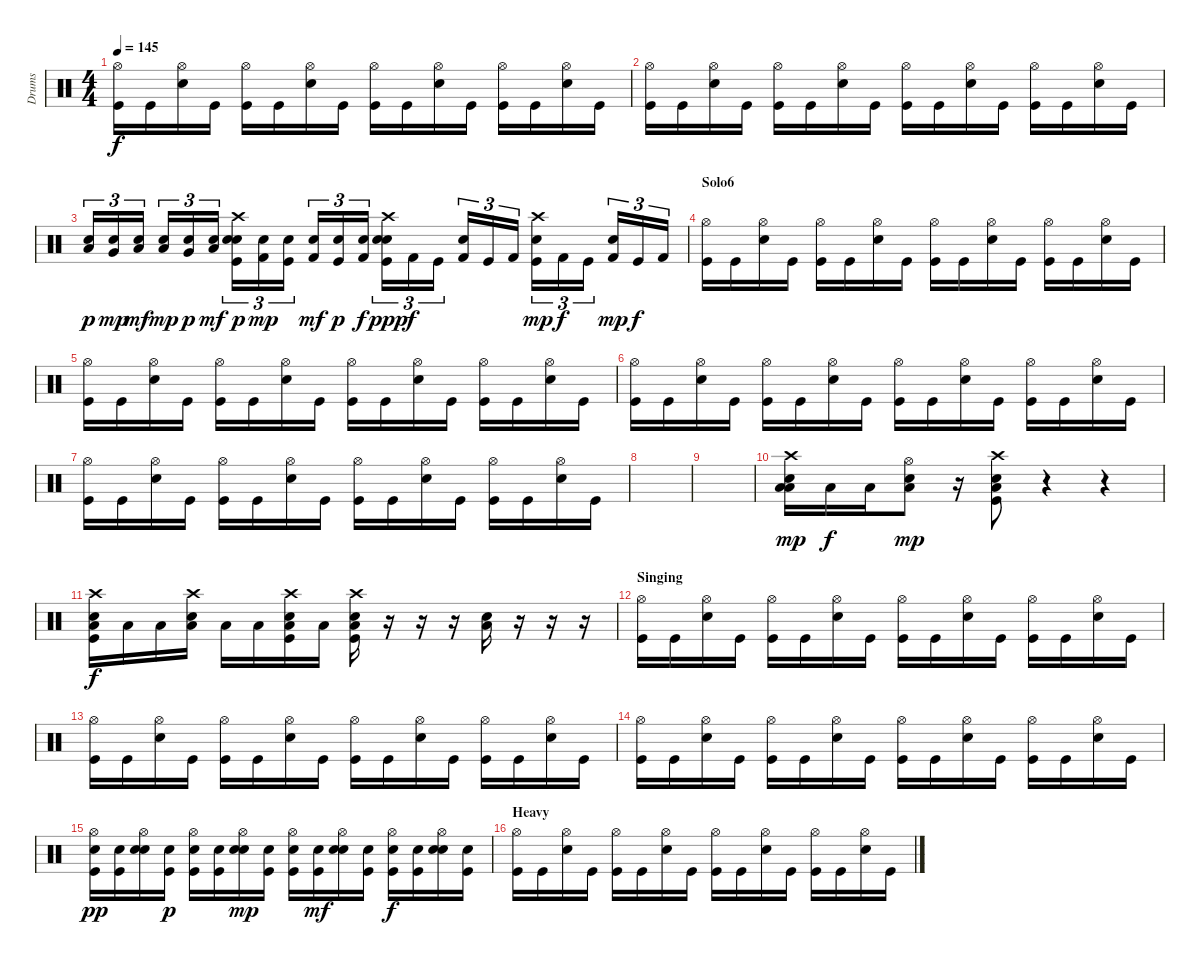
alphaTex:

\track ("Drums" "Drums") {instrument percussion}
\staff {score}
\articulation defaults
\ts (4 4)
\tempo 145
\clef neutral
\ks c
("Hi-Hat (open)" "Kick (hit)").16{dy f} "Kick (hit)".16 ("Hi-Hat (open)" "Electric Snare (hit)").16 "Kick (hit)".16 ("Hi-Hat (open)" "Kick (hit)").16 "Kick (hit)".16 ("Hi-Hat (open)" "Electric Snare (hit)").16 "Kick (hit)".16 ("Hi-Hat (open)" "Kick (hit)").16 "Kick (hit)".16 ("Hi-Hat (open)" "Electric Snare (hit)").16 "Kick (hit)".16 ("Hi-Hat (open)" "Kick (hit)").16 "Kick (hit)".16 ("Hi-Hat (open)" "Electric Snare (hit)").16 "Kick (hit)".16 |
("Hi-Hat (open)" "Kick (hit)").16 "Kick (hit)".16 ("Hi-Hat (open)" "Electric Snare (hit)").16 "Kick (hit)".16 ("Hi-Hat (open)" "Kick (hit)").16 "Kick (hit)".16 ("Hi-Hat (open)" "Electric Snare (hit)").16 "Kick (hit)".16 ("Hi-Hat (open)" "Kick (hit)").16 "Kick (hit)".16 ("Hi-Hat (open)" "Electric Snare (hit)").16 "Kick (hit)".16 ("Hi-Hat (open)" "Kick (hit)").16 "Kick (hit)".16 ("Hi-Hat (open)" "Electric Snare (hit)").16 "Kick (hit)".16 |
("Snare (hit) 2" "Low Tom (hit)").16{tu (3 2) dy p} ("Snare (hit) 2" "Very Low Tom (hit)").16{tu (3 2) dy mp} ("Snare (hit) 2" "Low Floor Tom (hit)").16{tu (3 2) dy mf} ("Snare (hit) 2" "Low Tom (hit)").16{tu (3 2) dy mp} ("Snare (hit) 2" "Very Low Tom (hit)").16{tu (3 2) dy p} ("Snare (hit) 2" "Low Floor Tom (hit)").16{tu (3 2) dy mf} ("Snare (hit) 2" "Crash high (hit)" "Electric Snare (hit)" "Kick (hit)").16{tu (3 2) dy p} ("Electric Snare (hit)" "Kick (hit) 2").16{tu (3 2) dy mp} ("Electric Snare (hit)" "Kick (hit)").16{tu (3 2)} ("Electric Snare (hit)" "Kick (hit) 2").16{tu (3 2) dy mf} ("Electric Snare (hit)" "Kick (hit)").16{tu (3 2) dy p} ("Electric Snare (hit)" "Kick (hit) 2").16{tu (3 2) dy f} ("Snare (hit) 2" "Crash high (hit)" "Electric Snare (hit)" "Kick (hit)").16{tu (3 2) dy ppp} "Kick (hit) 2".16{tu (3 2) dy f} "Kick (hit)".16{tu (3 2)} ("Electric Snare (hit)" "Kick (hit) 2").16{tu (3 2)} "Kick (hit)".16{tu (3 2)} "Kick (hit) 2".16{tu (3 2)} ("Snare (hit) 2" "Crash high (hit)" "Kick (hit)").16{tu (3 2) dy mp} "Kick (hit) 2".16{tu (3 2) dy f} "Kick (hit)".16{tu (3 2)} ("Electric Snare (hit)" "Kick (hit) 2").16{tu (3 2) dy mp} "Kick (hit)".16{tu (3 2) dy f} "Kick (hit) 2".16{tu (3 2)} |
\section ("" "Solo6")
("Hi-Hat (open)" "Kick (hit)").16 "Kick (hit)".16 ("Hi-Hat (open)" "Electric Snare (hit)").16 "Kick (hit)".16 ("Hi-Hat (open)" "Kick (hit)").16 "Kick (hit)".16 ("Hi-Hat (open)" "Electric Snare (hit)").16 "Kick (hit)".16 ("Hi-Hat (open)" "Kick (hit)").16 "Kick (hit)".16 ("Hi-Hat (open)" "Electric Snare (hit)").16 "Kick (hit)".16 ("Hi-Hat (open)" "Kick (hit)").16 "Kick (hit)".16 ("Hi-Hat (open)" "Electric Snare (hit)").16 "Kick (hit)".16 |
("Hi-Hat (open)" "Kick (hit)").16 "Kick (hit)".16 ("Hi-Hat (open)" "Electric Snare (hit)").16 "Kick (hit)".16 ("Hi-Hat (open)" "Kick (hit)").16 "Kick (hit)".16 ("Hi-Hat (open)" "Electric Snare (hit)").16 "Kick (hit)".16 ("Hi-Hat (open)" "Kick (hit)").16 "Kick (hit)".16 ("Hi-Hat (open)" "Electric Snare (hit)").16 "Kick (hit)".16 ("Hi-Hat (open)" "Kick (hit)").16 "Kick (hit)".16 ("Hi-Hat (open)" "Electric Snare (hit)").16 "Kick (hit)".16 |
("Hi-Hat (open)" "Kick (hit)").16 "Kick (hit)".16 ("Hi-Hat (open)" "Electric Snare (hit)").16 "Kick (hit)".16 ("Hi-Hat (open)" "Kick (hit)").16 "Kick (hit)".16 ("Hi-Hat (open)" "Electric Snare (hit)").16 "Kick (hit)".16 ("Hi-Hat (open)" "Kick (hit)").16 "Kick (hit)".16 ("Hi-Hat (open)" "Electric Snare (hit)").16 "Kick (hit)".16 ("Hi-Hat (open)" "Kick (hit)").16 "Kick (hit)".16 ("Hi-Hat (open)" "Electric Snare (hit)").16 "Kick (hit)".16 |
("Hi-Hat (open)" "Kick (hit)").16 "Kick (hit)".16 ("Hi-Hat (open)" "Electric Snare (hit)").16 "Kick (hit)".16 ("Hi-Hat (open)" "Kick (hit)").16 "Kick (hit)".16 ("Hi-Hat (open)" "Electric Snare (hit)").16 "Kick (hit)".16 ("Hi-Hat (open)" "Kick (hit)").16 "Kick (hit)".16 ("Hi-Hat (open)" "Electric Snare (hit)").16 "Kick (hit)".16 ("Hi-Hat (open)" "Kick (hit)").16 "Kick (hit)".16 ("Hi-Hat (open)" "Electric Snare (hit)").16 "Kick (hit)".16 |
|
|
("Crash high (hit)" "Snare (hit) 2" "Low Tom (hit)" "Low Floor Tom (hit)").16{dy mp} "Low Tom (hit)".16{dy f} "Low Floor Tom (hit)".16 ("Hi-Hat (open)" "Snare (hit) 2" "Low Floor Tom (hit)").8{dy mp} r.16 ("Crash high (hit)" "Snare (hit) 2" "Low Floor Tom (hit)" "Kick (hit)").8 r.4 r.4 |
("Crash high (hit)" "Low Floor Tom (hit)" "Snare (hit) 2" "Kick (hit)").16{dy f} "Low Floor Tom (hit)".16 "Low Floor Tom (hit)".16 ("Crash high (hit)" "Low Floor Tom (hit)" "Snare (hit) 2").16 "Low Floor Tom (hit)".16 "Low Floor Tom (hit)".16 ("Crash high (hit)" "Low Floor Tom (hit)" "Snare (hit) 2" "Kick (hit)").16 "Low Floor Tom (hit)".16 ("Crash high (hit)" "Low Floor Tom (hit)" "Snare (hit) 2" "Kick (hit)").16 r.16 r.16 r.16 ("Low Floor Tom (hit)" "Snare (hit) 2").16 r.16 r.16 r.16 |
\section ("" "Singing")
("Hi-Hat (open)" "Kick (hit)").16 "Kick (hit)".16 ("Hi-Hat (open)" "Electric Snare (hit)").16 "Kick (hit)".16 ("Hi-Hat (open)" "Kick (hit)").16 "Kick (hit)".16 ("Hi-Hat (open)" "Electric Snare (hit)").16 "Kick (hit)".16 ("Hi-Hat (open)" "Kick (hit)").16 "Kick (hit)".16 ("Hi-Hat (open)" "Electric Snare (hit)").16 "Kick (hit)".16 ("Hi-Hat (open)" "Kick (hit)").16 "Kick (hit)".16 ("Hi-Hat (open)" "Electric Snare (hit)").16 "Kick (hit)".16 |
("Hi-Hat (open)" "Kick (hit)").16 "Kick (hit)".16 ("Hi-Hat (open)" "Electric Snare (hit)").16 "Kick (hit)".16 ("Hi-Hat (open)" "Kick (hit)").16 "Kick (hit)".16 ("Hi-Hat (open)" "Electric Snare (hit)").16 "Kick (hit)".16 ("Hi-Hat (open)" "Kick (hit)").16 "Kick (hit)".16 ("Hi-Hat (open)" "Electric Snare (hit)").16 "Kick (hit)".16 ("Hi-Hat (open)" "Kick (hit)").16 "Kick (hit)".16 ("Hi-Hat (open)" "Electric Snare (hit)").16 "Kick (hit)".16 |
("Hi-Hat (open)" "Kick (hit)").16 "Kick (hit)".16 ("Hi-Hat (open)" "Electric Snare (hit)").16 "Kick (hit)".16 ("Hi-Hat (open)" "Kick (hit)").16 "Kick (hit)".16 ("Hi-Hat (open)" "Electric Snare (hit)").16 "Kick (hit)".16 ("Hi-Hat (open)" "Kick (hit)").16 "Kick (hit)".16 ("Hi-Hat (open)" "Electric Snare (hit)").16 "Kick (hit)".16 ("Hi-Hat (open)" "Kick (hit)").16 "Kick (hit)".16 ("Hi-Hat (open)" "Electric Snare (hit)").16 "Kick (hit)".16 |
("Hi-Hat (open)" "Snare (hit) 2" "Kick (hit)").16{dy pp} ("Snare (hit) 2" "Kick (hit)").16 ("Hi-Hat (open)" "Electric Snare (hit)" "Snare (hit) 2").16 ("Snare (hit) 2" "Kick (hit)").16{dy p} ("Hi-Hat (open)" "Snare (hit) 2" "Kick (hit)").16 ("Snare (hit) 2" "Kick (hit)").16 ("Hi-Hat (open)" "Electric Snare (hit)" "Snare (hit) 2").16{dy mp} ("Snare (hit) 2" "Kick (hit)").16 ("Hi-Hat (open)" "Snare (hit) 2" "Kick (hit)").16 ("Snare (hit) 2" "Kick (hit)").16{dy mf} ("Hi-Hat (open)" "Electric Snare (hit)" "Snare (hit) 2").16 ("Snare (hit) 2" "Kick (hit)").16 ("Hi-Hat (open)" "Snare (hit) 2" "Kick (hit)").16{dy f} ("Snare (hit) 2" "Kick (hit)").16 ("Hi-Hat (open)" "Electric Snare (hit)" "Snare (hit) 2").16 ("Snare (hit) 2" "Kick (hit)").16 |
\section ("" "Heavy")
("Hi-Hat (open)" "Kick (hit)").16 "Kick (hit)".16 ("Hi-Hat (open)" "Electric Snare (hit)").16 "Kick (hit)".16 ("Hi-Hat (open)" "Kick (hit)").16 "Kick (hit)".16 ("Hi-Hat (open)" "Electric Snare (hit)").16 "Kick (hit)".16 ("Hi-Hat (open)" "Kick (hit)").16 "Kick (hit)".16 ("Hi-Hat (open)" "Electric Snare (hit)").16 "Kick (hit)".16 ("Hi-Hat (open)" "Kick (hit)").16 "Kick (hit)".16 ("Hi-Hat (open)" "Electric Snare (hit)").16 "Kick (hit)".16
